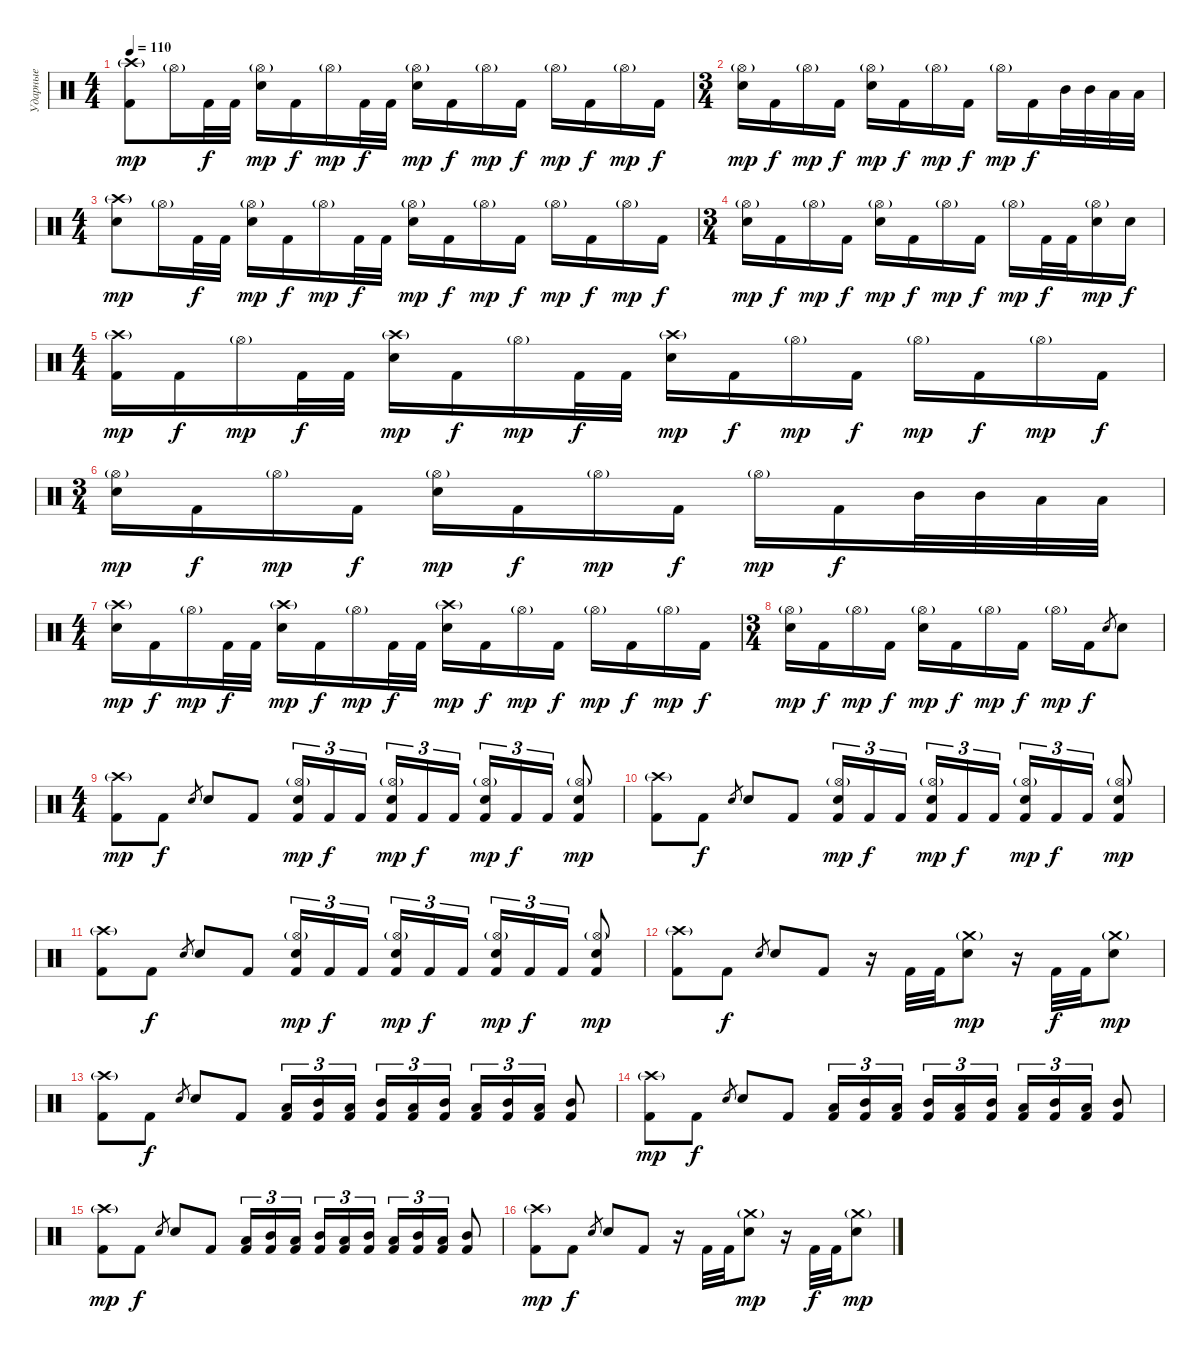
\track ("Ударные" "Ударные") {instrument percussion}
\staff {score}
\articulation defaults
\ts (4 4)
\tempo 110
\clef neutral
\ks c
("Crash high (hit)"{g} "Kick (hit) 2").8{dy mp} "Hi-Hat (open)"{g}.16 "Kick (hit) 2".32{dy f} "Kick (hit) 2".32 ("Hi-Hat (open)"{g} "Electric Snare (hit)").16{dy mp} "Kick (hit) 2".16{dy f} "Hi-Hat (open)"{g}.16{dy mp} "Kick (hit) 2".32{dy f} "Kick (hit) 2".32 ("Hi-Hat (open)"{g} "Electric Snare (hit)").16{dy mp} "Kick (hit) 2".16{dy f} "Hi-Hat (open)"{g}.16{dy mp} "Kick (hit) 2".16{dy f} "Hi-Hat (open)"{g}.16{dy mp} "Kick (hit) 2".16{dy f} "Hi-Hat (open)"{g}.16{dy mp} "Kick (hit) 2".16{dy f} |
\ts (3 4)
("Hi-Hat (open)"{g} "Electric Snare (hit)").16{dy mp} "Kick (hit) 2".16{dy f} "Hi-Hat (open)"{g}.16{dy mp} "Kick (hit) 2".16{dy f} ("Hi-Hat (open)"{g} "Electric Snare (hit)").16{dy mp} "Kick (hit) 2".16{dy f} "Hi-Hat (open)"{g}.16{dy mp} "Kick (hit) 2".16{dy f} "Hi-Hat (open)"{g}.16{dy mp} "Kick (hit) 2".16{dy f} "Mid Tom (hit)".32 "Mid Tom (hit)".32 "Low Tom (hit)".32 "Low Tom (hit)".32 |
\ts (4 4)
("Crash high (hit)"{g} "Electric Snare (hit)").8{dy mp} "Hi-Hat (open)"{g}.16 "Kick (hit) 2".32{dy f} "Kick (hit) 2".32 ("Hi-Hat (open)"{g} "Electric Snare (hit)").16{dy mp} "Kick (hit) 2".16{dy f} "Hi-Hat (open)"{g}.16{dy mp} "Kick (hit) 2".32{dy f} "Kick (hit) 2".32 ("Hi-Hat (open)"{g} "Electric Snare (hit)").16{dy mp} "Kick (hit) 2".16{dy f} "Hi-Hat (open)"{g}.16{dy mp} "Kick (hit) 2".16{dy f} "Hi-Hat (open)"{g}.16{dy mp} "Kick (hit) 2".16{dy f} "Hi-Hat (open)"{g}.16{dy mp} "Kick (hit) 2".16{dy f} |
\ts (3 4)
("Hi-Hat (open)"{g} "Electric Snare (hit)").16{dy mp} "Kick (hit) 2".16{dy f} "Hi-Hat (open)"{g}.16{dy mp} "Kick (hit) 2".16{dy f} ("Hi-Hat (open)"{g} "Electric Snare (hit)").16{dy mp} "Kick (hit) 2".16{dy f} "Hi-Hat (open)"{g}.16{dy mp} "Kick (hit) 2".16{dy f} "Hi-Hat (open)"{g}.16{dy mp} "Kick (hit) 2".32{dy f} "Kick (hit) 2".32 ("Hi-Hat (open)"{g} "Electric Snare (hit)").16{dy mp} "Electric Snare (hit)".16{dy f} |
\ts (4 4)
("Crash high (hit)"{g} "Kick (hit) 2").16{dy mp} "Kick (hit) 2".16{dy f} "Hi-Hat (open)"{g}.16{dy mp} "Kick (hit) 2".32{dy f} "Kick (hit) 2".32 ("Crash high (hit)"{g} "Electric Snare (hit)").16{dy mp} "Kick (hit) 2".16{dy f} "Hi-Hat (open)"{g}.16{dy mp} "Kick (hit) 2".32{dy f} "Kick (hit) 2".32 ("Crash high (hit)"{g} "Electric Snare (hit)").16{dy mp} "Kick (hit) 2".16{dy f} "Hi-Hat (open)"{g}.16{dy mp} "Kick (hit) 2".16{dy f} "Hi-Hat (open)"{g}.16{dy mp} "Kick (hit) 2".16{dy f} "Hi-Hat (open)"{g}.16{dy mp} "Kick (hit) 2".16{dy f} |
\ts (3 4)
("Hi-Hat (open)"{g} "Electric Snare (hit)").16{dy mp} "Kick (hit) 2".16{dy f} "Hi-Hat (open)"{g}.16{dy mp} "Kick (hit) 2".16{dy f} ("Hi-Hat (open)"{g} "Electric Snare (hit)").16{dy mp} "Kick (hit) 2".16{dy f} "Hi-Hat (open)"{g}.16{dy mp} "Kick (hit) 2".16{dy f} "Hi-Hat (open)"{g}.16{dy mp} "Kick (hit) 2".16{dy f} "Mid Tom (hit)".32 "Mid Tom (hit)".32 "Low Tom (hit)".32 "Low Tom (hit)".32 |
\ts (4 4)
("Crash high (hit)"{g} "Electric Snare (hit)").16{dy mp} "Kick (hit) 2".16{dy f} "Hi-Hat (open)"{g}.16{dy mp} "Kick (hit) 2".32{dy f} "Kick (hit) 2".32 ("Crash high (hit)"{g} "Electric Snare (hit)").16{dy mp} "Kick (hit) 2".16{dy f} "Hi-Hat (open)"{g}.16{dy mp} "Kick (hit) 2".32{dy f} "Kick (hit) 2".32 ("Crash high (hit)"{g} "Electric Snare (hit)").16{dy mp} "Kick (hit) 2".16{dy f} "Hi-Hat (open)"{g}.16{dy mp} "Kick (hit) 2".16{dy f} "Hi-Hat (open)"{g}.16{dy mp} "Kick (hit) 2".16{dy f} "Hi-Hat (open)"{g}.16{dy mp} "Kick (hit) 2".16{dy f} |
\ts (3 4)
("Hi-Hat (open)"{g} "Electric Snare (hit)").16{dy mp} "Kick (hit) 2".16{dy f} "Hi-Hat (open)"{g}.16{dy mp} "Kick (hit) 2".16{dy f} ("Hi-Hat (open)"{g} "Electric Snare (hit)").16{dy mp} "Kick (hit) 2".16{dy f} "Hi-Hat (open)"{g}.16{dy mp} "Kick (hit) 2".16{dy f} "Hi-Hat (open)"{g}.16{dy mp} "Kick (hit) 2".16{dy f} "Electric Snare (hit)".8{gr} "Electric Snare (hit)".8 |
\ts (4 4)
("Crash high (hit)"{g} "Kick (hit) 2").8{dy mp} "Kick (hit) 2".8{dy f} "Electric Snare (hit)".8{gr} "Electric Snare (hit)".8 "Kick (hit) 2".8 ("Hi-Hat (open)"{g} "Electric Snare (hit)" "Kick (hit) 2").16{tu (3 2) dy mp} "Kick (hit) 2".16{tu (3 2) dy f} "Kick (hit) 2".16{tu (3 2)} ("Hi-Hat (open)"{g} "Electric Snare (hit)" "Kick (hit) 2").16{tu (3 2) dy mp} "Kick (hit) 2".16{tu (3 2) dy f} "Kick (hit) 2".16{tu (3 2)} ("Hi-Hat (open)"{g} "Electric Snare (hit)" "Kick (hit) 2").16{tu (3 2) dy mp} "Kick (hit) 2".16{tu (3 2) dy f} "Kick (hit) 2".16{tu (3 2)} ("Hi-Hat (open)"{g} "Electric Snare (hit)" "Kick (hit) 2").8{dy mp} |
("Crash high (hit)"{g} "Kick (hit) 2").8 "Kick (hit) 2".8{dy f} "Electric Snare (hit)".8{gr} "Electric Snare (hit)".8 "Kick (hit) 2".8 ("Hi-Hat (open)"{g} "Electric Snare (hit)" "Kick (hit) 2").16{tu (3 2) dy mp} "Kick (hit) 2".16{tu (3 2) dy f} "Kick (hit) 2".16{tu (3 2)} ("Hi-Hat (open)"{g} "Electric Snare (hit)" "Kick (hit) 2").16{tu (3 2) dy mp} "Kick (hit) 2".16{tu (3 2) dy f} "Kick (hit) 2".16{tu (3 2)} ("Hi-Hat (open)"{g} "Electric Snare (hit)" "Kick (hit) 2").16{tu (3 2) dy mp} "Kick (hit) 2".16{tu (3 2) dy f} "Kick (hit) 2".16{tu (3 2)} ("Hi-Hat (open)"{g} "Electric Snare (hit)" "Kick (hit) 2").8{dy mp} |
("Crash high (hit)"{g} "Kick (hit) 2").8 "Kick (hit) 2".8{dy f} "Electric Snare (hit)".8{gr} "Electric Snare (hit)".8 "Kick (hit) 2".8 ("Hi-Hat (open)"{g} "Electric Snare (hit)" "Kick (hit) 2").16{tu (3 2) dy mp} "Kick (hit) 2".16{tu (3 2) dy f} "Kick (hit) 2".16{tu (3 2)} ("Hi-Hat (open)"{g} "Electric Snare (hit)" "Kick (hit) 2").16{tu (3 2) dy mp} "Kick (hit) 2".16{tu (3 2) dy f} "Kick (hit) 2".16{tu (3 2)} ("Hi-Hat (open)"{g} "Electric Snare (hit)" "Kick (hit) 2").16{tu (3 2) dy mp} "Kick (hit) 2".16{tu (3 2) dy f} "Kick (hit) 2".16{tu (3 2)} ("Hi-Hat (open)"{g} "Electric Snare (hit)" "Kick (hit) 2").8{dy mp} |
("Crash high (hit)"{g} "Kick (hit) 2").8 "Kick (hit) 2".8{dy f} "Electric Snare (hit)".8{gr} "Electric Snare (hit)".8 "Kick (hit) 2".8 r.16 "Kick (hit) 2".32 "Kick (hit) 2".32 ("Crash medium (hit)"{g} "Electric Snare (hit)").8{dy mp} r.16 "Kick (hit) 2".32{dy f} "Kick (hit) 2".32 ("Crash medium (hit)"{g} "Electric Snare (hit)").8{dy mp} |
("Crash high (hit)"{g} "Kick (hit) 2").8 "Kick (hit) 2".8{dy f} "Electric Snare (hit)".8{gr} "Electric Snare (hit)".8 "Kick (hit) 2".8 ("Low Tom (hit)" "Kick (hit) 2").16{tu (3 2)} ("Mid Tom (hit)" "Kick (hit) 2").16{tu (3 2)} ("Low Tom (hit)" "Kick (hit) 2").16{tu (3 2)} ("Mid Tom (hit)" "Kick (hit) 2").16{tu (3 2)} ("Low Tom (hit)" "Kick (hit) 2").16{tu (3 2)} ("Mid Tom (hit)" "Kick (hit) 2").16{tu (3 2)} ("Low Tom (hit)" "Kick (hit) 2").16{tu (3 2)} ("Mid Tom (hit)" "Kick (hit) 2").16{tu (3 2)} ("Low Tom (hit)" "Kick (hit) 2").16{tu (3 2)} ("Mid Tom (hit)" "Kick (hit) 2").8 |
("Crash high (hit)"{g} "Kick (hit) 2").8{dy mp} "Kick (hit) 2".8{dy f} "Electric Snare (hit)".8{gr} "Electric Snare (hit)".8 "Kick (hit) 2".8 ("Low Tom (hit)" "Kick (hit) 2").16{tu (3 2)} ("Mid Tom (hit)" "Kick (hit) 2").16{tu (3 2)} ("Low Tom (hit)" "Kick (hit) 2").16{tu (3 2)} ("Mid Tom (hit)" "Kick (hit) 2").16{tu (3 2)} ("Low Tom (hit)" "Kick (hit) 2").16{tu (3 2)} ("Mid Tom (hit)" "Kick (hit) 2").16{tu (3 2)} ("Low Tom (hit)" "Kick (hit) 2").16{tu (3 2)} ("Mid Tom (hit)" "Kick (hit) 2").16{tu (3 2)} ("Low Tom (hit)" "Kick (hit) 2").16{tu (3 2)} ("Mid Tom (hit)" "Kick (hit) 2").8 |
("Crash high (hit)"{g} "Kick (hit) 2").8{dy mp} "Kick (hit) 2".8{dy f} "Electric Snare (hit)".8{gr} "Electric Snare (hit)".8 "Kick (hit) 2".8 ("Low Tom (hit)" "Kick (hit) 2").16{tu (3 2)} ("Mid Tom (hit)" "Kick (hit) 2").16{tu (3 2)} ("Low Tom (hit)" "Kick (hit) 2").16{tu (3 2)} ("Mid Tom (hit)" "Kick (hit) 2").16{tu (3 2)} ("Low Tom (hit)" "Kick (hit) 2").16{tu (3 2)} ("Mid Tom (hit)" "Kick (hit) 2").16{tu (3 2)} ("Low Tom (hit)" "Kick (hit) 2").16{tu (3 2)} ("Mid Tom (hit)" "Kick (hit) 2").16{tu (3 2)} ("Low Tom (hit)" "Kick (hit) 2").16{tu (3 2)} ("Mid Tom (hit)" "Kick (hit) 2").8 |
("Crash high (hit)"{g} "Kick (hit) 2").8{dy mp} "Kick (hit) 2".8{dy f} "Electric Snare (hit)".8{gr} "Electric Snare (hit)".8 "Kick (hit) 2".8 r.16 "Kick (hit) 2".32 "Kick (hit) 2".32 ("Crash medium (hit)"{g} "Electric Snare (hit)").8{dy mp} r.16 "Kick (hit) 2".32{dy f} "Kick (hit) 2".32 ("Crash medium (hit)"{g} "Electric Snare (hit)").8{dy mp}
